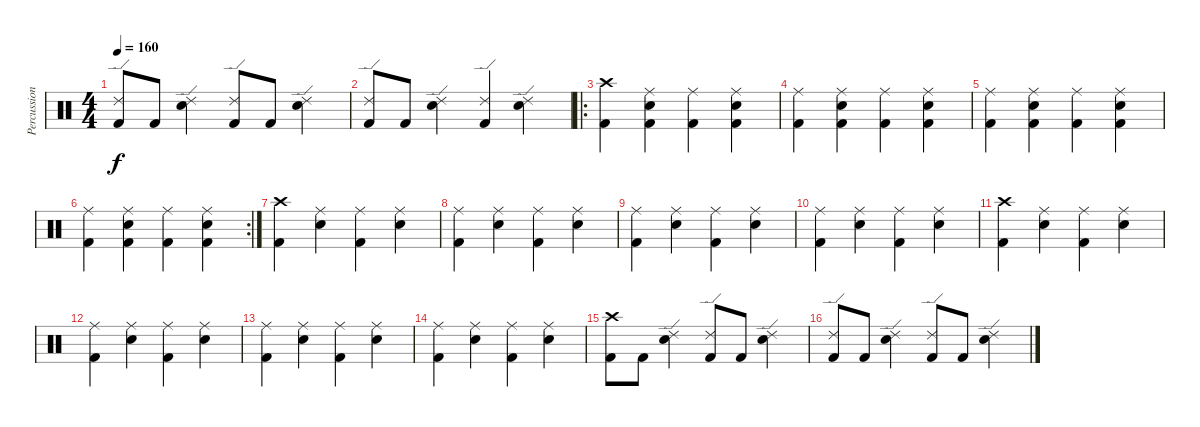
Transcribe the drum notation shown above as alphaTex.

\track ("Percussion" "Percussion") {instrument percussion}
\staff {score}
\articulation defaults
\ts (4 4)
\tempo 160
\clef neutral
\ks c
("Ride (edge) 2" "Kick (hit) 2").8{dy f} "Kick (hit) 2".8 ("Ride (edge) 2" "Snare (hit) 2").4 ("Ride (edge) 2" "Kick (hit) 2").8 "Kick (hit) 2".8 ("Ride (edge) 2" "Snare (hit) 2").4 |
("Ride (edge) 2" "Kick (hit) 2").8 "Kick (hit) 2".8 ("Ride (edge) 2" "Snare (hit) 2").4 ("Ride (edge) 2" "Kick (hit) 2").4 ("Snare (hit) 2" "Ride (edge) 2").4 |
\ro
("Crash high (hit)" "Kick (hit) 2").4 ("Ride (middle)" "Snare (hit) 2" "Kick (hit) 2").4 ("Ride (middle)" "Kick (hit) 2").4 ("Ride (middle)" "Snare (hit) 2" "Kick (hit) 2").4 |
("Ride (middle)" "Kick (hit) 2").4 ("Ride (middle)" "Snare (hit) 2" "Kick (hit) 2").4 ("Ride (middle)" "Kick (hit) 2").4 ("Ride (middle)" "Snare (hit) 2" "Kick (hit) 2").4 |
("Ride (middle)" "Kick (hit) 2").4 ("Ride (middle)" "Snare (hit) 2" "Kick (hit) 2").4 ("Ride (middle)" "Kick (hit) 2").4 ("Ride (middle)" "Snare (hit) 2" "Kick (hit) 2").4 |
\rc 2
("Ride (middle)" "Kick (hit) 2").4 ("Ride (middle)" "Snare (hit) 2" "Kick (hit) 2").4 ("Ride (middle)" "Kick (hit) 2").4 ("Ride (middle)" "Snare (hit) 2" "Kick (hit) 2").4 |
("Crash high (hit)" "Kick (hit) 2").4 ("Ride (middle)" "Snare (hit) 2").4 ("Ride (middle)" "Kick (hit) 2").4 ("Ride (middle)" "Snare (hit) 2").4 |
("Ride (middle)" "Kick (hit) 2").4 ("Ride (middle)" "Snare (hit) 2").4 ("Ride (middle)" "Kick (hit) 2").4 ("Ride (middle)" "Snare (hit) 2").4 |
("Ride (middle)" "Kick (hit) 2").4 ("Ride (middle)" "Snare (hit) 2").4 ("Ride (middle)" "Kick (hit) 2").4 ("Ride (middle)" "Snare (hit) 2").4 |
("Ride (middle)" "Kick (hit) 2").4 ("Ride (middle)" "Snare (hit) 2").4 ("Ride (middle)" "Kick (hit) 2").4 ("Ride (middle)" "Snare (hit) 2").4 |
("Crash high (hit)" "Kick (hit) 2").4 ("Ride (middle)" "Snare (hit) 2").4 ("Ride (middle)" "Kick (hit) 2").4 ("Ride (middle)" "Snare (hit) 2").4 |
("Ride (middle)" "Kick (hit) 2").4 ("Ride (middle)" "Snare (hit) 2").4 ("Ride (middle)" "Kick (hit) 2").4 ("Ride (middle)" "Snare (hit) 2").4 |
("Ride (middle)" "Kick (hit) 2").4 ("Ride (middle)" "Snare (hit) 2").4 ("Ride (middle)" "Kick (hit) 2").4 ("Ride (middle)" "Snare (hit) 2").4 |
("Ride (middle)" "Kick (hit) 2").4 ("Ride (middle)" "Snare (hit) 2").4 ("Ride (middle)" "Kick (hit) 2").4 ("Ride (middle)" "Snare (hit) 2").4 |
("Crash high (hit)" "Kick (hit) 2").8 "Kick (hit) 2".8 ("Ride (edge) 2" "Snare (hit) 2").4 ("Ride (edge) 2" "Kick (hit) 2").8 "Kick (hit) 2".8 ("Ride (edge) 2" "Snare (hit) 2").4 |
("Ride (edge) 2" "Kick (hit) 2").8 "Kick (hit) 2".8 ("Ride (edge) 2" "Snare (hit) 2").4 ("Ride (edge) 2" "Kick (hit) 2").8 "Kick (hit) 2".8 ("Ride (edge) 2" "Snare (hit) 2").4
